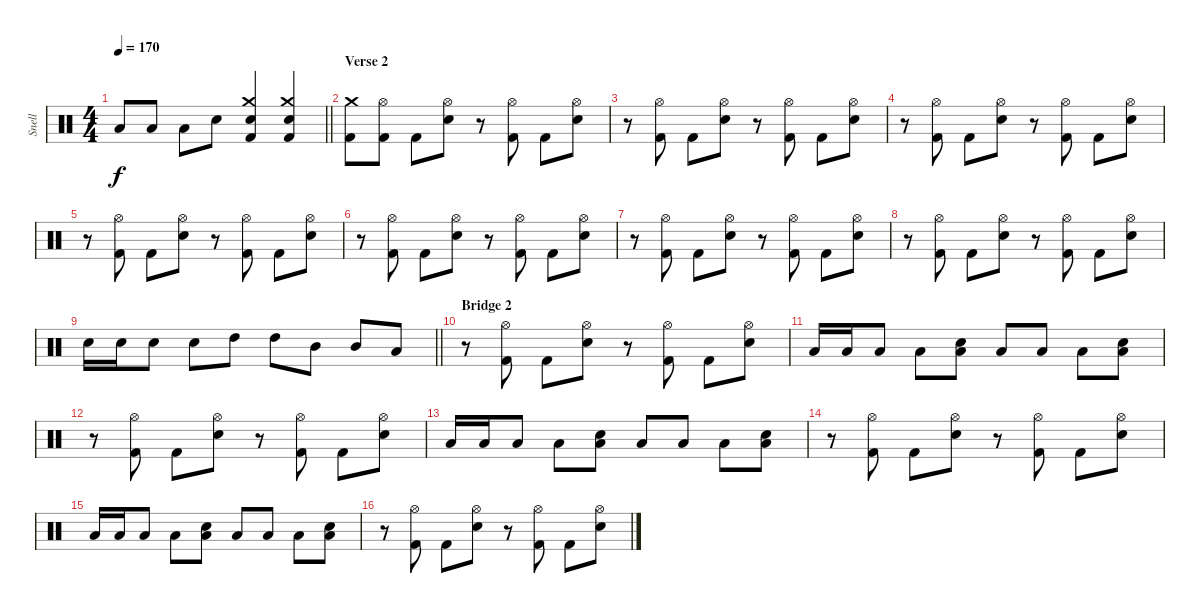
\track ("Snell" "Snell") {instrument percussion}
\staff {score}
\articulation defaults
\ts (4 4)
\tempo 170
\clef neutral
\barLineRight lightlight
\ks c "Low Tom (hit)".8{dy f} "Low Tom (hit)".8 "Low Tom (hit)".8 "Electric Snare (hit)".8
("Crash medium (hit)" "Electric Snare (hit)" "Kick (hit) 2").4 ("Crash medium (hit)" "Electric Snare (hit)" "Kick (hit) 2").4 |
\section ("" "Verse 2")
("Crash medium (hit)" "Kick (hit) 2").8 ("Hi-Hat (open)" "Kick (hit) 2").8 "Kick (hit) 2".8 ("Hi-Hat (open)" "Electric Snare (hit)").8 r.8 ("Hi-Hat (open)" "Kick (hit) 2").8 "Kick (hit) 2".8 ("Hi-Hat (open)" "Electric Snare (hit)").8 |
r.8 ("Hi-Hat (open)" "Kick (hit) 2").8 "Kick (hit) 2".8 ("Hi-Hat (open)" "Electric Snare (hit)").8 r.8 ("Hi-Hat (open)" "Kick (hit) 2").8 "Kick (hit) 2".8 ("Hi-Hat (open)" "Electric Snare (hit)").8 |
r.8 ("Hi-Hat (open)" "Kick (hit) 2").8 "Kick (hit) 2".8 ("Hi-Hat (open)" "Electric Snare (hit)").8 r.8 ("Hi-Hat (open)" "Kick (hit) 2").8 "Kick (hit) 2".8 ("Hi-Hat (open)" "Electric Snare (hit)").8 |
r.8 ("Hi-Hat (open)" "Kick (hit) 2").8 "Kick (hit) 2".8 ("Hi-Hat (open)" "Electric Snare (hit)").8 r.8 ("Hi-Hat (open)" "Kick (hit) 2").8 "Kick (hit) 2".8 ("Hi-Hat (open)" "Electric Snare (hit)").8 |
r.8 ("Hi-Hat (open)" "Kick (hit) 2").8 "Kick (hit) 2".8 ("Hi-Hat (open)" "Electric Snare (hit)").8 r.8 ("Hi-Hat (open)" "Kick (hit) 2").8 "Kick (hit) 2".8 ("Hi-Hat (open)" "Electric Snare (hit)").8 |
r.8 ("Hi-Hat (open)" "Kick (hit) 2").8 "Kick (hit) 2".8 ("Hi-Hat (open)" "Electric Snare (hit)").8 r.8 ("Hi-Hat (open)" "Kick (hit) 2").8 "Kick (hit) 2".8 ("Hi-Hat (open)" "Electric Snare (hit)").8 |
r.8 ("Hi-Hat (open)" "Kick (hit) 2").8 "Kick (hit) 2".8 ("Hi-Hat (open)" "Electric Snare (hit)").8 r.8 ("Hi-Hat (open)" "Kick (hit) 2").8 "Kick (hit) 2".8 ("Hi-Hat (open)" "Electric Snare (hit)").8 |
\barLineRight lightlight "Electric Snare (hit)".16 "Electric Snare (hit)".16 "Electric Snare (hit)".8 "Electric Snare (hit)".8 "High Tom (hit)".8 "High Tom (hit)".8 "Mid Tom (hit)".8 "Mid Tom (hit)".8 "Low Tom (hit)".8
|
\section ("" "Bridge 2")
r.8 ("Hi-Hat (open)" "Kick (hit) 2").8 "Kick (hit) 2".8 ("Hi-Hat (open)" "Electric Snare (hit)").8 r.8 ("Hi-Hat (open)" "Kick (hit) 2").8 "Kick (hit) 2".8 ("Hi-Hat (open)" "Electric Snare (hit)").8 |
"Low Tom (hit)".16 "Low Tom (hit)".16 "Low Tom (hit)".8 "Low Tom (hit)".8 ("Electric Snare (hit)" "Low Tom (hit)").8 "Low Tom (hit)".8 "Low Tom (hit)".8 "Low Tom (hit)".8 ("Electric Snare (hit)" "Low Tom (hit)").8 |
r.8 ("Hi-Hat (open)" "Kick (hit) 2").8 "Kick (hit) 2".8 ("Hi-Hat (open)" "Electric Snare (hit)").8 r.8 ("Hi-Hat (open)" "Kick (hit) 2").8 "Kick (hit) 2".8 ("Hi-Hat (open)" "Electric Snare (hit)").8 |
"Low Tom (hit)".16 "Low Tom (hit)".16 "Low Tom (hit)".8 "Low Tom (hit)".8 ("Electric Snare (hit)" "Low Tom (hit)").8 "Low Tom (hit)".8 "Low Tom (hit)".8 "Low Tom (hit)".8 ("Electric Snare (hit)" "Low Tom (hit)").8 |
r.8 ("Hi-Hat (open)" "Kick (hit) 2").8 "Kick (hit) 2".8 ("Hi-Hat (open)" "Electric Snare (hit)").8 r.8 ("Hi-Hat (open)" "Kick (hit) 2").8 "Kick (hit) 2".8 ("Hi-Hat (open)" "Electric Snare (hit)").8 |
"Low Tom (hit)".16 "Low Tom (hit)".16 "Low Tom (hit)".8 "Low Tom (hit)".8 ("Electric Snare (hit)" "Low Tom (hit)").8 "Low Tom (hit)".8 "Low Tom (hit)".8 "Low Tom (hit)".8 ("Electric Snare (hit)" "Low Tom (hit)").8 |
r.8 ("Hi-Hat (open)" "Kick (hit) 2").8 "Kick (hit) 2".8 ("Hi-Hat (open)" "Electric Snare (hit)").8 r.8 ("Hi-Hat (open)" "Kick (hit) 2").8 "Kick (hit) 2".8 ("Hi-Hat (open)" "Electric Snare (hit)").8
